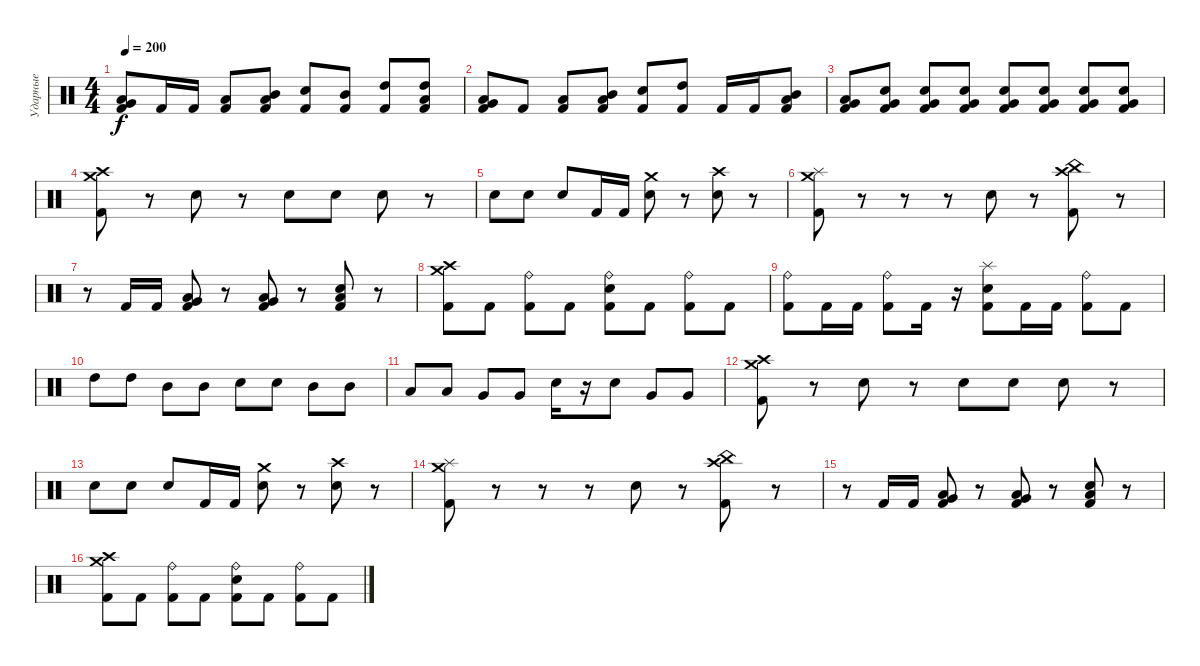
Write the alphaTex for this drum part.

\track ("Ударные" "Ударные") {instrument percussion}
\staff {score}
\articulation defaults
\ts (4 4)
\tempo 200
\clef neutral
\ks c
("Kick (hit) 2" "Low Floor Tom (hit)" "Very Low Tom (hit)").8{dy f} "Kick (hit) 2".16 "Kick (hit) 2".16 ("Kick (hit) 2" "Low Tom (hit)").8 ("Kick (hit) 2" "Mid Tom (hit)" "Low Tom (hit)").8 ("Kick (hit) 2" "Electric Snare (hit)").8 ("Kick (hit) 2" "Mid Tom (hit)").8 ("Kick (hit) 2" "High Tom (hit)").8 ("Kick (hit) 2" "Low Tom (hit)" "High Tom (hit)").8 |
("Kick (hit) 2" "Low Floor Tom (hit)" "Very Low Tom (hit)").8 "Kick (hit) 2".8 ("Kick (hit) 2" "Low Tom (hit)").8 ("Kick (hit) 2" "Mid Tom (hit)" "Low Tom (hit)").8 ("Kick (hit) 2" "Electric Snare (hit)").8 ("Kick (hit) 2" "High Tom (hit)").8 "Kick (hit) 2".16 "Kick (hit) 2".16 ("Kick (hit) 2" "Low Tom (hit)" "Mid Tom (hit)").8 |
("Kick (hit) 2" "Low Floor Tom (hit)" "Very Low Tom (hit)").8 ("Kick (hit) 2" "Electric Snare (hit)" "Very Low Tom (hit)").8 ("Kick (hit) 2" "Electric Snare (hit)" "Very Low Tom (hit)").8 ("Kick (hit) 2" "Electric Snare (hit)" "Very Low Tom (hit)").8 ("Kick (hit) 2" "Electric Snare (hit)" "Very Low Tom (hit)").8 ("Kick (hit) 2" "Electric Snare (hit)" "Very Low Tom (hit)").8 ("Kick (hit) 2" "Electric Snare (hit)" "Very Low Tom (hit)").8 ("Kick (hit) 2" "Electric Snare (hit)" "Very Low Tom (hit)").8 |
("Kick (hit) 2" "Crash high (hit)" "Crash medium (hit)").8 r.8 "Electric Snare (hit)".8 r.8 "Electric Snare (hit)".8 "Electric Snare (hit)".8 "Electric Snare (hit)".8 r.8 |
"Electric Snare (hit)".8 "Electric Snare (hit)".8 "Electric Snare (hit)".8 "Kick (hit) 2".16 "Kick (hit) 2".16 ("Electric Snare (hit)" "Crash medium (hit)").8 r.8 ("Electric Snare (hit)" "Crash high (hit)").8 r.8 |
("Kick (hit) 2" "Crash medium (hit)" "Splash (hit)").8 r.8 r.8 r.8 "Electric Snare (hit)".8 r.8 ("Kick (hit) 2" "Crash high (hit)" "China (hit)").8 r.8 |
r.8 "Kick (hit) 2".16 "Kick (hit) 2".16 ("Kick (hit) 2" "Low Floor Tom (hit)" "Very Low Tom (hit)").8 r.8 ("Kick (hit) 2" "Low Floor Tom (hit)" "Very Low Tom (hit)").8 r.8 ("Kick (hit) 2" "Low Floor Tom (hit)" "Electric Snare (hit)").8 r.8 |
("Kick (hit) 2" "Crash high (hit)" "Crash medium (hit)").8 "Kick (hit) 2".8 ("Kick (hit) 2" "Ride (bell)").8 "Kick (hit) 2".8 ("Kick (hit) 2" "Electric Snare (hit)" "Ride (bell)").8 "Kick (hit) 2".8 ("Kick (hit) 2" "Ride (bell)").8 "Kick (hit) 2".8 |
("Kick (hit) 2" "Ride (bell)").8 "Kick (hit) 2".16 "Kick (hit) 2".16 ("Kick (hit) 2" "Ride (bell)").8 "Kick (hit) 2".16 r.16 ("Kick (hit) 2" "Electric Snare (hit)" "Splash (hit)").8 "Kick (hit) 2".16 "Kick (hit) 2".16 ("Kick (hit) 2" "Ride (bell)").8 "Kick (hit) 2".8 |
"High Tom (hit)".8 "High Tom (hit)".8 "Mid Tom (hit)".8 "Mid Tom (hit)".8 "Electric Snare (hit)".8 "Electric Snare (hit)".8 "Mid Tom (hit)".8 "Mid Tom (hit)".8 |
"Low Tom (hit)".8 "Low Tom (hit)".8 "Very Low Tom (hit)".8 "Very Low Tom (hit)".8 "Electric Snare (hit)".16 r.16 "Electric Snare (hit)".8 "Very Low Tom (hit)".8 "Very Low Tom (hit)".8 |
("Kick (hit) 2" "Crash high (hit)" "Crash medium (hit)").8 r.8 "Electric Snare (hit)".8 r.8 "Electric Snare (hit)".8 "Electric Snare (hit)".8 "Electric Snare (hit)".8 r.8 |
"Electric Snare (hit)".8 "Electric Snare (hit)".8 "Electric Snare (hit)".8 "Kick (hit) 2".16 "Kick (hit) 2".16 ("Electric Snare (hit)" "Crash medium (hit)").8 r.8 ("Electric Snare (hit)" "Crash high (hit)").8 r.8 |
("Kick (hit) 2" "Crash medium (hit)" "Splash (hit)").8 r.8 r.8 r.8 "Electric Snare (hit)".8 r.8 ("Kick (hit) 2" "Crash high (hit)" "China (hit)").8 r.8 |
r.8 "Kick (hit) 2".16 "Kick (hit) 2".16 ("Kick (hit) 2" "Low Floor Tom (hit)" "Very Low Tom (hit)").8 r.8 ("Kick (hit) 2" "Low Floor Tom (hit)" "Very Low Tom (hit)").8 r.8 ("Kick (hit) 2" "Low Floor Tom (hit)" "Electric Snare (hit)").8 r.8 |
("Kick (hit) 2" "Crash high (hit)" "Crash medium (hit)").8 "Kick (hit) 2".8 ("Kick (hit) 2" "Ride (bell)").8 "Kick (hit) 2".8 ("Kick (hit) 2" "Electric Snare (hit)" "Ride (bell)").8 "Kick (hit) 2".8 ("Kick (hit) 2" "Ride (bell)").8 "Kick (hit) 2".8
